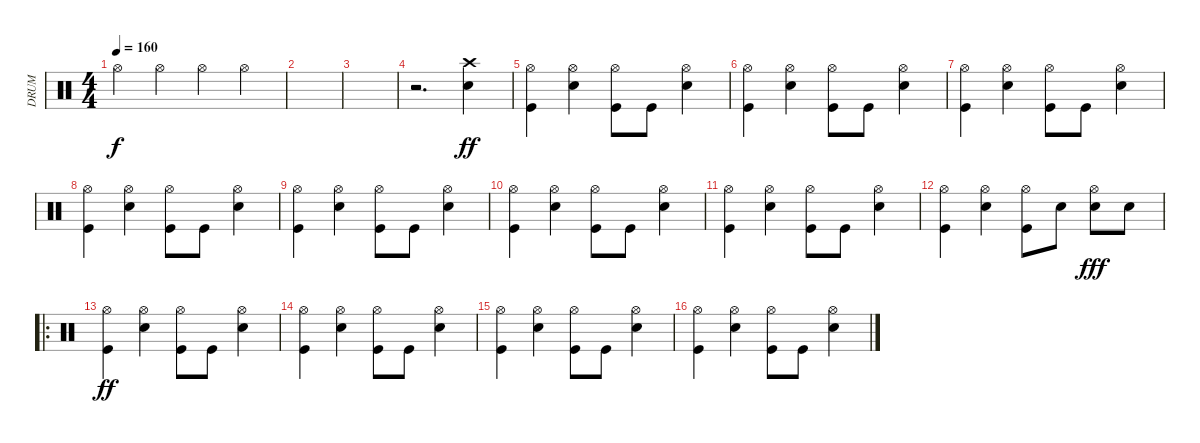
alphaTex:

\track ("DRUM" "DRUM") {instrument percussion}
\staff {score}
\articulation defaults
\ts (4 4)
\tempo 160
\clef neutral
\ks c "Hi-Hat (open)".4{dy f} "Hi-Hat (open)".4 "Hi-Hat (open)".4 "Hi-Hat (open)".4
|
|
|
r.2{d} ("Crash high (hit)" "Snare (hit) 2").4{dy ff} |
("Hi-Hat (open)" "Kick (hit)").4 ("Hi-Hat (open)" "Snare (hit) 2").4 ("Hi-Hat (open)" "Kick (hit)").8 "Kick (hit)".8 ("Hi-Hat (open)" "Snare (hit) 2").4 |
("Hi-Hat (open)" "Kick (hit)").4 ("Hi-Hat (open)" "Snare (hit) 2").4 ("Hi-Hat (open)" "Kick (hit)").8 "Kick (hit)".8 ("Hi-Hat (open)" "Snare (hit) 2").4 |
("Hi-Hat (open)" "Kick (hit)").4 ("Hi-Hat (open)" "Snare (hit) 2").4 ("Hi-Hat (open)" "Kick (hit)").8 "Kick (hit)".8 ("Hi-Hat (open)" "Snare (hit) 2").4 |
("Hi-Hat (open)" "Kick (hit)").4 ("Hi-Hat (open)" "Snare (hit) 2").4 ("Hi-Hat (open)" "Kick (hit)").8 "Kick (hit)".8 ("Hi-Hat (open)" "Snare (hit) 2").4 |
("Hi-Hat (open)" "Kick (hit)").4 ("Hi-Hat (open)" "Snare (hit) 2").4 ("Hi-Hat (open)" "Kick (hit)").8 "Kick (hit)".8 ("Hi-Hat (open)" "Snare (hit) 2").4 |
("Hi-Hat (open)" "Kick (hit)").4 ("Hi-Hat (open)" "Snare (hit) 2").4 ("Hi-Hat (open)" "Kick (hit)").8 "Kick (hit)".8 ("Hi-Hat (open)" "Snare (hit) 2").4 |
("Hi-Hat (open)" "Kick (hit)").4 ("Hi-Hat (open)" "Snare (hit) 2").4 ("Hi-Hat (open)" "Kick (hit)").8 "Kick (hit)".8 ("Hi-Hat (open)" "Snare (hit) 2").4 |
("Hi-Hat (open)" "Kick (hit)").4 ("Hi-Hat (open)" "Snare (hit) 2").4 ("Hi-Hat (open)" "Kick (hit)").8 "Snare (hit) 2".8 ("Hi-Hat (open)" "Snare (hit) 2").8{dy fff} "Snare (hit) 2".8 |
\ro
("Hi-Hat (open)" "Kick (hit)").4{dy ff} ("Hi-Hat (open)" "Snare (hit) 2").4 ("Hi-Hat (open)" "Kick (hit)").8 "Kick (hit)".8 ("Hi-Hat (open)" "Snare (hit) 2").4 |
("Hi-Hat (open)" "Kick (hit)").4 ("Hi-Hat (open)" "Snare (hit) 2").4 ("Hi-Hat (open)" "Kick (hit)").8 "Kick (hit)".8 ("Hi-Hat (open)" "Snare (hit) 2").4 |
("Hi-Hat (open)" "Kick (hit)").4 ("Hi-Hat (open)" "Snare (hit) 2").4 ("Hi-Hat (open)" "Kick (hit)").8 "Kick (hit)".8 ("Hi-Hat (open)" "Snare (hit) 2").4 |
("Hi-Hat (open)" "Kick (hit)").4 ("Hi-Hat (open)" "Snare (hit) 2").4 ("Hi-Hat (open)" "Kick (hit)").8 "Kick (hit)".8 ("Hi-Hat (open)" "Snare (hit) 2").4
